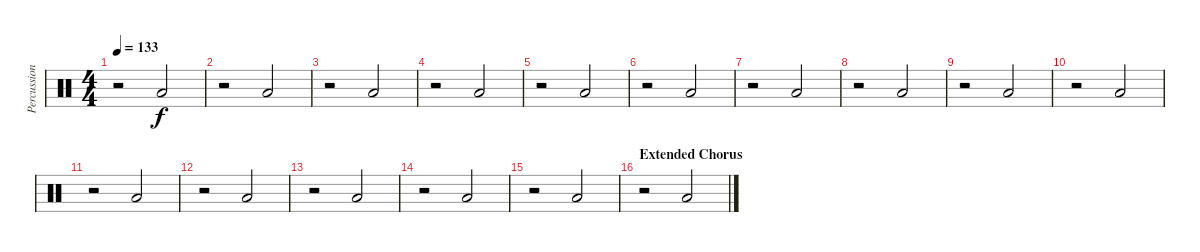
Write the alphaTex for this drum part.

\track ("Percussion" "Percussion") {instrument percussion}
\staff {score}
\articulation defaults
\ts (4 4)
\tempo 133
\clef neutral
\ks c
r.2{dy f} "Low Tom (hit)".2 |
r.2 "Low Tom (hit)".2 |
r.2 "Low Tom (hit)".2 |
r.2 "Low Tom (hit)".2 |
r.2 "Low Tom (hit)".2 |
r.2 "Low Tom (hit)".2 |
r.2 "Low Tom (hit)".2 |
r.2 "Low Tom (hit)".2 |
r.2 "Low Tom (hit)".2 |
r.2 "Low Tom (hit)".2 |
r.2 "Low Tom (hit)".2 |
r.2 "Low Tom (hit)".2 |
r.2 "Low Tom (hit)".2 |
r.2 "Low Tom (hit)".2 |
r.2 "Low Tom (hit)".2 |
\section ("" "Extended Chorus")
r.2 "Low Tom (hit)".2
